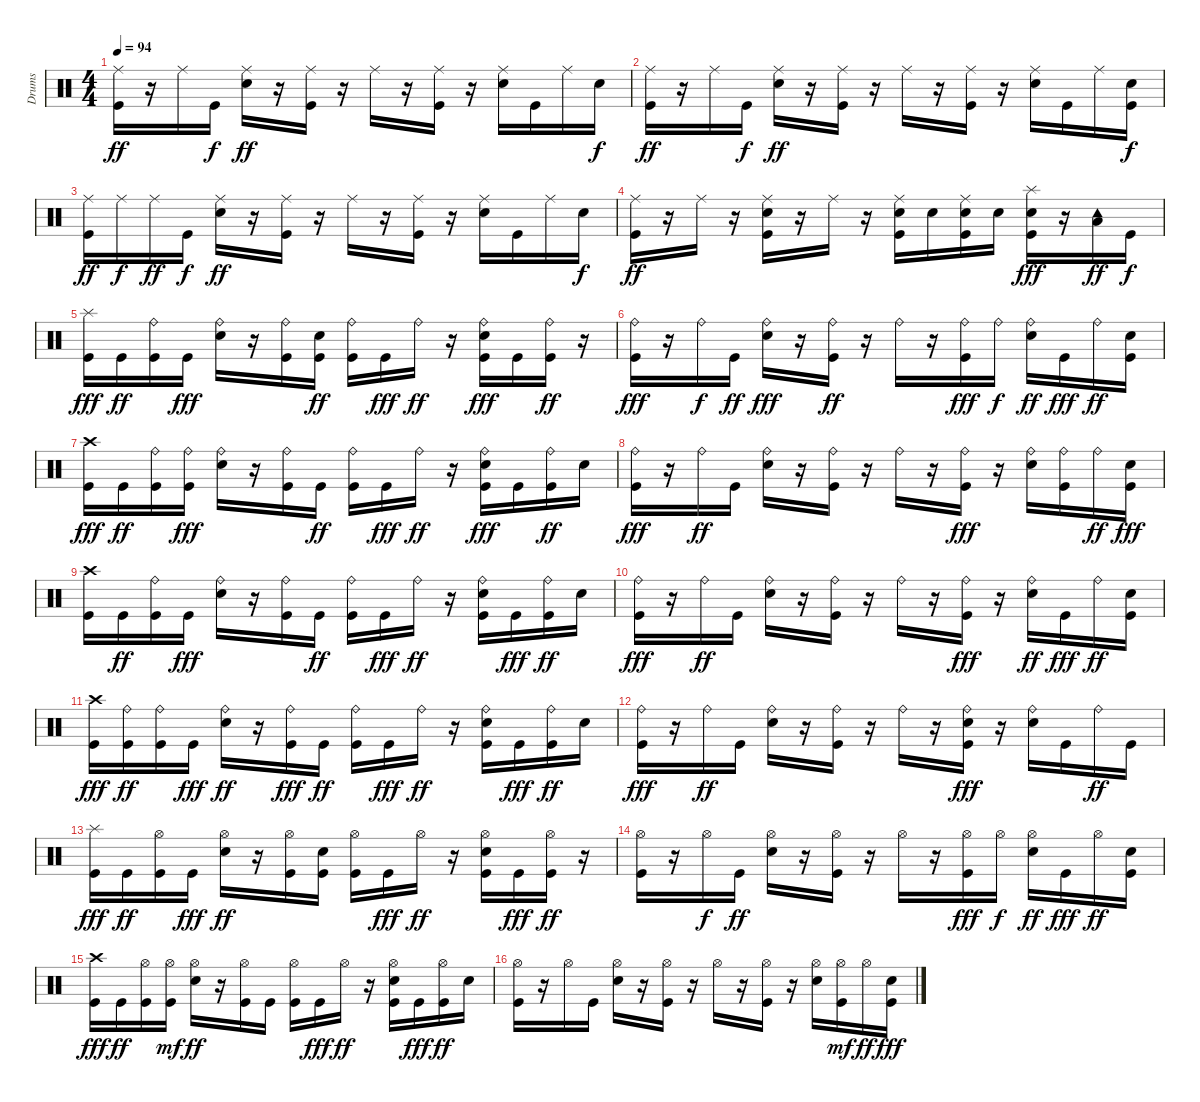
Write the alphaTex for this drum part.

\track ("Drums" "Drums") {instrument percussion}
\staff {score}
\articulation defaults
\ts (4 4)
\tempo 94
\clef neutral
\ks c
("Ride (middle)" "Kick (hit)").16{dy ff} r.16 "Ride (middle)".16 "Kick (hit)".16{dy f} ("Ride (middle)" "Snare (hit) 2").16{dy ff} r.16 ("Ride (middle)" "Kick (hit)").16 r.16 "Ride (middle)".16 r.16 ("Ride (middle)" "Kick (hit)").16 r.16 ("Ride (middle)" "Snare (hit) 2").16 "Kick (hit)".16 "Ride (middle)".16 "Snare (hit) 2".16{dy f} |
("Ride (middle)" "Kick (hit)").16{dy ff} r.16 "Ride (middle)".16 "Kick (hit)".16{dy f} ("Ride (middle)" "Snare (hit) 2").16{dy ff} r.16 ("Ride (middle)" "Kick (hit)").16 r.16 "Ride (middle)".16 r.16 ("Ride (middle)" "Kick (hit)").16 r.16 ("Ride (middle)" "Snare (hit) 2").16 "Kick (hit)".16 "Ride (middle)".16 ("Kick (hit)" "Snare (hit) 2").16{dy f} |
("Ride (middle)" "Kick (hit)").16{dy ff} "Ride (middle)".16{dy f} "Ride (middle)".16{dy ff} "Kick (hit)".16{dy f} ("Ride (middle)" "Snare (hit) 2").16{dy ff} r.16 ("Ride (middle)" "Kick (hit)").16 r.16 "Ride (middle)".16 r.16 ("Ride (middle)" "Kick (hit)").16 r.16 ("Ride (middle)" "Snare (hit) 2").16 "Kick (hit)".16 "Ride (middle)".16 "Snare (hit) 2".16{dy f} |
("Ride (middle)" "Kick (hit)").16{dy ff} r.16 "Ride (middle)".16 r.16 ("Snare (hit) 2" "Kick (hit)" "Ride (middle)").16 r.16 "Ride (middle)".16 r.16 ("Kick (hit)" "Snare (hit) 2" "Ride (middle)").16 "Snare (hit) 2".16 ("Ride (middle)" "Kick (hit)" "Snare (hit) 2").16 "Snare (hit) 2".16 ("Splash (hit)" "Kick (hit)" "Snare (hit) 2").16{dy fff} r.16 ("Tambourine (hit)" "Low Floor Tom (hit)").16{dy ff} "Kick (hit)".16{dy f} |
("Splash (hit)" "Kick (hit)").16{dy fff} "Kick (hit)".16{dy ff} ("Ride (bell)" "Kick (hit)").16 "Kick (hit)".16{dy fff} ("Ride (bell)" "Snare (hit) 2").16 r.16 ("Ride (bell)" "Kick (hit)").16 ("Kick (hit)" "Snare (hit) 2").16{dy ff} ("Ride (bell)" "Kick (hit)").16 "Kick (hit)".16{dy fff} "Ride (bell)".16{dy ff} r.16 ("Ride (bell)" "Kick (hit)" "Snare (hit) 2").16{dy fff} "Kick (hit)".16 ("Ride (bell)" "Kick (hit)").16{dy ff} r.16 |
("Ride (bell)" "Kick (hit)").16{dy fff} r.16 "Ride (bell)".16{dy f} "Kick (hit)".16{dy ff} ("Ride (bell)" "Snare (hit) 2").16{dy fff} r.16 ("Ride (bell)" "Kick (hit)").16{dy ff} r.16 "Ride (bell)".16 r.16 ("Ride (bell)" "Kick (hit)").16{dy fff} "Ride (bell)".16{dy f} ("Ride (bell)" "Snare (hit) 2").16{dy ff} "Kick (hit)".16{dy fff} "Ride (bell)".16{dy ff} ("Kick (hit)" "Snare (hit) 2").16 |
("Crash high (hit)" "Kick (hit)").16{dy fff} "Kick (hit)".16{dy ff} ("Ride (bell)" "Kick (hit)").16 ("Ride (bell)" "Kick (hit)").16{dy fff} ("Ride (bell)" "Snare (hit) 2").16 r.16 ("Ride (bell)" "Kick (hit)").16 "Kick (hit)".16{dy ff} ("Ride (bell)" "Kick (hit)").16 "Kick (hit)".16{dy fff} "Ride (bell)".16{dy ff} r.16 ("Ride (bell)" "Kick (hit)" "Snare (hit) 2").16{dy fff} "Kick (hit)".16 ("Ride (bell)" "Kick (hit)").16{dy ff} "Snare (hit) 2".16 |
("Ride (bell)" "Kick (hit)").16{dy fff} r.16 "Ride (bell)".16{dy ff} "Kick (hit)".16 ("Ride (bell)" "Snare (hit) 2").16 r.16 ("Ride (bell)" "Kick (hit)").16 r.16 "Ride (bell)".16 r.16 ("Ride (bell)" "Kick (hit)").16{dy fff} r.16 ("Ride (bell)" "Snare (hit) 2").16 ("Ride (bell)" "Kick (hit)").16 "Ride (bell)".16{dy ff} ("Kick (hit)" "Snare (hit) 2").16{dy fff} |
("Crash high (hit)" "Kick (hit)").16 "Kick (hit)".16{dy ff} ("Ride (bell)" "Kick (hit)").16 "Kick (hit)".16{dy fff} ("Ride (bell)" "Snare (hit) 2").16 r.16 ("Ride (bell)" "Kick (hit)").16 "Kick (hit)".16{dy ff} ("Ride (bell)" "Kick (hit)").16 "Kick (hit)".16{dy fff} "Ride (bell)".16{dy ff} r.16 ("Ride (bell)" "Kick (hit)" "Snare (hit) 2").16 "Kick (hit)".16{dy fff} ("Ride (bell)" "Kick (hit)").16{dy ff} "Snare (hit) 2".16 |
("Ride (bell)" "Kick (hit)").16{dy fff} r.16 "Ride (bell)".16{dy ff} "Kick (hit)".16 ("Ride (bell)" "Snare (hit) 2").16 r.16 ("Ride (bell)" "Kick (hit)").16 r.16 "Ride (bell)".16 r.16 ("Ride (bell)" "Kick (hit)").16{dy fff} r.16 ("Ride (bell)" "Snare (hit) 2").16{dy ff} "Kick (hit)".16{dy fff} "Ride (bell)".16{dy ff} ("Kick (hit)" "Snare (hit) 2").16 |
("Crash high (hit)" "Kick (hit)").16{dy fff} ("Ride (bell)" "Kick (hit)").16{dy ff} ("Ride (bell)" "Kick (hit)").16 "Kick (hit)".16{dy fff} ("Ride (bell)" "Snare (hit) 2").16{dy ff} r.16 ("Ride (bell)" "Kick (hit)").16{dy fff} "Kick (hit)".16{dy ff} ("Ride (bell)" "Kick (hit)").16 "Kick (hit)".16{dy fff} "Ride (bell)".16{dy ff} r.16 ("Ride (bell)" "Kick (hit)" "Snare (hit) 2").16 "Kick (hit)".16{dy fff} ("Ride (bell)" "Kick (hit)").16{dy ff} "Snare (hit) 2".16 |
("Ride (bell)" "Kick (hit)").16{dy fff} r.16 "Ride (bell)".16{dy ff} "Kick (hit)".16 ("Ride (bell)" "Snare (hit) 2").16 r.16 ("Ride (bell)" "Kick (hit)").16 r.16 "Ride (bell)".16 r.16 ("Ride (bell)" "Kick (hit)" "Snare (hit) 2").16{dy fff} r.16 ("Ride (bell)" "Snare (hit) 2").16 "Kick (hit)".16 "Ride (bell)".16{dy ff} "Kick (hit)".16 |
("Splash (hit)" "Kick (hit)").16{dy fff} "Kick (hit)".16{dy ff} ("Kick (hit)" "Hi-Hat (open)").16 "Kick (hit)".16{dy fff} ("Snare (hit) 2" "Hi-Hat (open)").16{dy ff} r.16 ("Kick (hit)" "Hi-Hat (open)").16 ("Kick (hit)" "Snare (hit) 2").16 ("Kick (hit)" "Hi-Hat (open)").16 "Kick (hit)".16{dy fff} "Hi-Hat (open)".16{dy ff} r.16 ("Kick (hit)" "Snare (hit) 2" "Hi-Hat (open)").16 "Kick (hit)".16{dy fff} ("Kick (hit)" "Hi-Hat (open)").16{dy ff} r.16 |
("Kick (hit)" "Hi-Hat (open)").16 r.16 "Hi-Hat (open)".16{dy f} "Kick (hit)".16{dy ff} ("Snare (hit) 2" "Hi-Hat (open)").16 r.16 ("Kick (hit)" "Hi-Hat (open)").16 r.16 "Hi-Hat (open)".16 r.16 ("Kick (hit)" "Hi-Hat (open)").16{dy fff} "Hi-Hat (open)".16{dy f} ("Snare (hit) 2" "Hi-Hat (open)").16{dy ff} "Kick (hit)".16{dy fff} "Hi-Hat (open)".16{dy ff} ("Kick (hit)" "Snare (hit) 2").16 |
("Crash high (hit)" "Kick (hit)").16{dy fff} "Kick (hit)".16{dy ff} ("Kick (hit)" "Hi-Hat (open)").16 ("Kick (hit)" "Hi-Hat (open)").16{dy mf} ("Snare (hit) 2" "Hi-Hat (open)").16{dy ff} r.16 ("Kick (hit)" "Hi-Hat (open)").16 "Kick (hit)".16 ("Kick (hit)" "Hi-Hat (open)").16 "Kick (hit)".16{dy fff} "Hi-Hat (open)".16{dy ff} r.16 ("Kick (hit)" "Snare (hit) 2" "Hi-Hat (open)").16 "Kick (hit)".16{dy fff} ("Kick (hit)" "Hi-Hat (open)").16{dy ff} "Snare (hit) 2".16 |
("Kick (hit)" "Hi-Hat (open)").16 r.16 "Hi-Hat (open)".16 "Kick (hit)".16 ("Snare (hit) 2" "Hi-Hat (open)").16 r.16 ("Kick (hit)" "Hi-Hat (open)").16 r.16 "Hi-Hat (open)".16 r.16 ("Kick (hit)" "Hi-Hat (open)").16 r.16 ("Snare (hit) 2" "Hi-Hat (open)").16 ("Kick (hit)" "Hi-Hat (open)").16{dy mf} "Hi-Hat (open)".16{dy ff} ("Kick (hit)" "Snare (hit) 2").16{dy fff}
